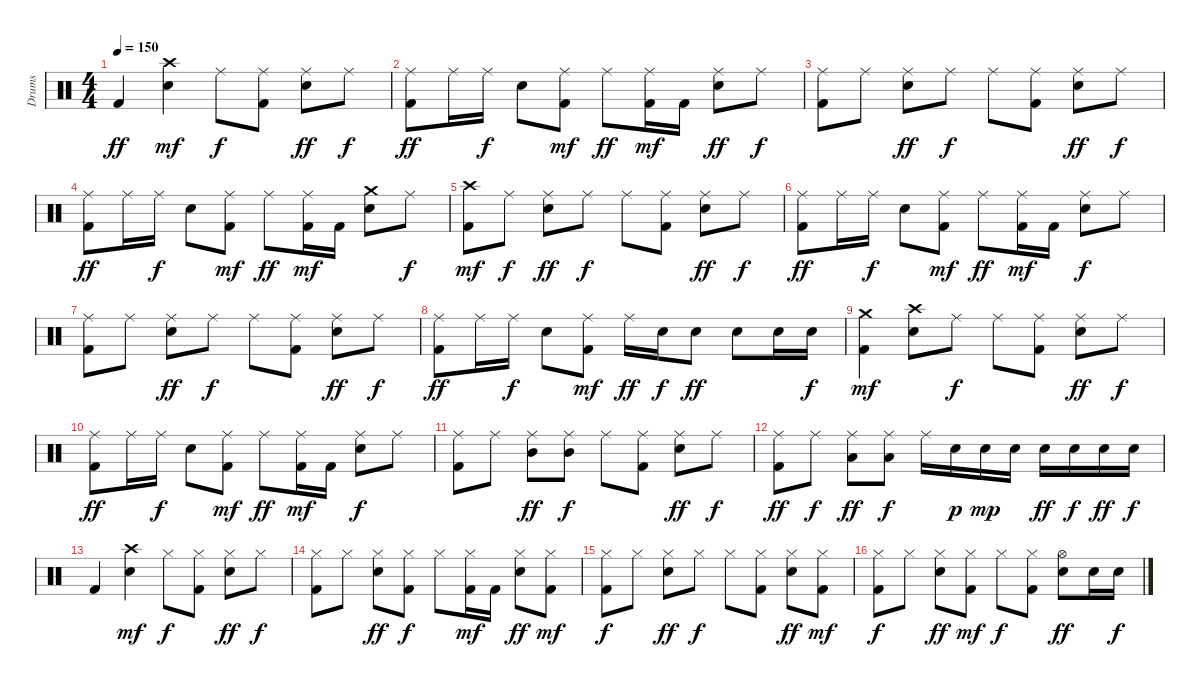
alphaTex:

\track ("Drums" "Drums") {instrument percussion}
\staff {score}
\articulation defaults
\ts (4 4)
\tempo 150
\clef neutral
\ks c "Kick (hit) 2".4{dy ff}
("Crash high (hit)" "Snare (hit) 2").4{dy mf} "Ride (middle)".8{dy f} ("Ride (middle)" "Kick (hit) 2").8 ("Ride (middle)" "Snare (hit) 2").8{dy ff} "Ride (middle)".8{dy f} |
("Ride (middle)" "Kick (hit) 2").8{dy ff} "Ride (middle)".16 "Ride (middle)".16{dy f} "Snare (hit) 2".8 ("Ride (middle)" "Kick (hit) 2").8{dy mf} "Ride (middle)".8{dy ff} ("Ride (middle)" "Kick (hit) 2").16{dy mf} "Kick (hit) 2".16 ("Ride (middle)" "Snare (hit) 2").8{dy ff} "Ride (middle)".8{dy f} |
("Ride (middle)" "Kick (hit) 2").8 "Ride (middle)".8 ("Ride (middle)" "Snare (hit) 2").8{dy ff} "Ride (middle)".8{dy f} "Ride (middle)".8 ("Ride (middle)" "Kick (hit) 2").8 ("Ride (middle)" "Snare (hit) 2").8{dy ff} "Ride (middle)".8{dy f} |
("Ride (middle)" "Kick (hit) 2").8{dy ff} "Ride (middle)".16 "Ride (middle)".16{dy f} "Snare (hit) 2".8 ("Ride (middle)" "Kick (hit) 2").8{dy mf} "Ride (middle)".8{dy ff} ("Ride (middle)" "Kick (hit) 2").16{dy mf} "Kick (hit) 2".16 ("Crash medium (hit)" "Snare (hit) 2").8 "Ride (middle)".8{dy f} |
("Crash high (hit)" "Kick (hit) 2").8{dy mf} "Ride (middle)".8{dy f} ("Ride (middle)" "Snare (hit) 2").8{dy ff} "Ride (middle)".8{dy f} "Ride (middle)".8 ("Ride (middle)" "Kick (hit) 2").8 ("Ride (middle)" "Snare (hit) 2").8{dy ff} "Ride (middle)".8{dy f} |
("Ride (middle)" "Kick (hit) 2").8{dy ff} "Ride (middle)".16 "Ride (middle)".16{dy f} "Snare (hit) 2".8 ("Ride (middle)" "Kick (hit) 2").8{dy mf} "Ride (middle)".8{dy ff} ("Ride (middle)" "Kick (hit) 2").16{dy mf} "Kick (hit) 2".16 ("Ride (middle)" "Snare (hit) 2").8{dy f} "Ride (middle)".8 |
("Ride (middle)" "Kick (hit) 2").8 "Ride (middle)".8 ("Ride (middle)" "Snare (hit) 2").8{dy ff} "Ride (middle)".8{dy f} "Ride (middle)".8 ("Ride (middle)" "Kick (hit) 2").8 ("Ride (middle)" "Snare (hit) 2").8{dy ff} "Ride (middle)".8{dy f} |
("Ride (middle)" "Kick (hit) 2").8{dy ff} "Ride (middle)".16 "Ride (middle)".16{dy f} "Snare (hit) 2".8 ("Ride (middle)" "Kick (hit) 2").8{dy mf} "Ride (middle)".16{dy ff} "Snare (hit) 2".16{dy f} "Snare (hit) 2".8{dy ff} "Snare (hit) 2".8 "Snare (hit) 2".16 "Snare (hit) 2".16{dy f} |
("Crash medium (hit)" "Kick (hit) 2").4{dy mf} ("Crash high (hit)" "Snare (hit) 2").8 "Ride (middle)".8{dy f} "Ride (middle)".8 ("Ride (middle)" "Kick (hit) 2").8 ("Ride (middle)" "Snare (hit) 2").8{dy ff} "Ride (middle)".8{dy f} |
("Ride (middle)" "Kick (hit) 2").8{dy ff} "Ride (middle)".16 "Ride (middle)".16{dy f} "Snare (hit) 2".8 ("Ride (middle)" "Kick (hit) 2").8{dy mf} "Ride (middle)".8{dy ff} ("Ride (middle)" "Kick (hit) 2").16{dy mf} "Kick (hit) 2".16 ("Ride (middle)" "Snare (hit) 2").8{dy f} "Ride (middle)".8 |
("Ride (middle)" "Kick (hit) 2").8 "Ride (middle)".8 ("Ride (middle)" "Mid Tom (hit)").8{dy ff} ("Ride (middle)" "Mid Tom (hit)").8{dy f} "Ride (middle)".8 ("Kick (hit) 2" "Ride (middle)").8 ("Snare (hit) 2" "Ride (middle)").8{dy ff} "Ride (middle)".8{dy f} |
("Ride (middle)" "Kick (hit) 2").8{dy ff} "Ride (middle)".8{dy f} ("Ride (middle)" "Low Tom (hit)").8{dy ff} ("Ride (middle)" "Low Tom (hit)").8{dy f} "Ride (middle)".16 "Snare (hit) 2".16{dy p} "Snare (hit) 2".16{dy mp} "Snare (hit) 2".16 "Snare (hit) 2".16{dy ff} "Snare (hit) 2".16{dy f} "Snare (hit) 2".16{dy ff} "Snare (hit) 2".16{dy f} |
"Kick (hit) 2".4 ("Crash high (hit)" "Snare (hit) 2").4{dy mf} "Hi-Hat (closed)".8{dy f} ("Hi-Hat (closed)" "Kick (hit) 2").8 ("Hi-Hat (closed)" "Snare (hit) 2").8{dy ff} "Hi-Hat (closed)".8{dy f} |
("Hi-Hat (closed)" "Kick (hit) 2").8 "Hi-Hat (closed)".8 ("Hi-Hat (closed)" "Snare (hit) 2").8{dy ff} ("Hi-Hat (closed)" "Kick (hit) 2").8{dy f} "Hi-Hat (closed)".8 ("Hi-Hat (closed)" "Kick (hit) 2").16{dy mf} "Kick (hit) 2".16 ("Hi-Hat (closed)" "Snare (hit) 2").8{dy ff} ("Hi-Hat (closed)" "Kick (hit) 2").8{dy mf} |
("Kick (hit) 2" "Hi-Hat (closed)").8{dy f} "Hi-Hat (closed)".8 ("Snare (hit) 2" "Hi-Hat (closed)").8{dy ff} "Hi-Hat (closed)".8{dy f} "Hi-Hat (closed)".8 ("Kick (hit) 2" "Hi-Hat (closed)").8 ("Snare (hit) 2" "Hi-Hat (closed)").8{dy ff} ("Kick (hit) 2" "Hi-Hat (closed)").8{dy mf} |
("Kick (hit) 2" "Hi-Hat (closed)").8{dy f} "Hi-Hat (closed)".8 ("Hi-Hat (closed)" "Snare (hit) 2").8{dy ff} ("Kick (hit) 2" "Hi-Hat (closed)").8{dy mf} "Hi-Hat (closed)".8{dy f} ("Kick (hit) 2" "Hi-Hat (closed)").8 ("Hi-Hat (open)" "Snare (hit) 2").8{dy ff} "Snare (hit) 2".16 "Snare (hit) 2".16{dy f}
